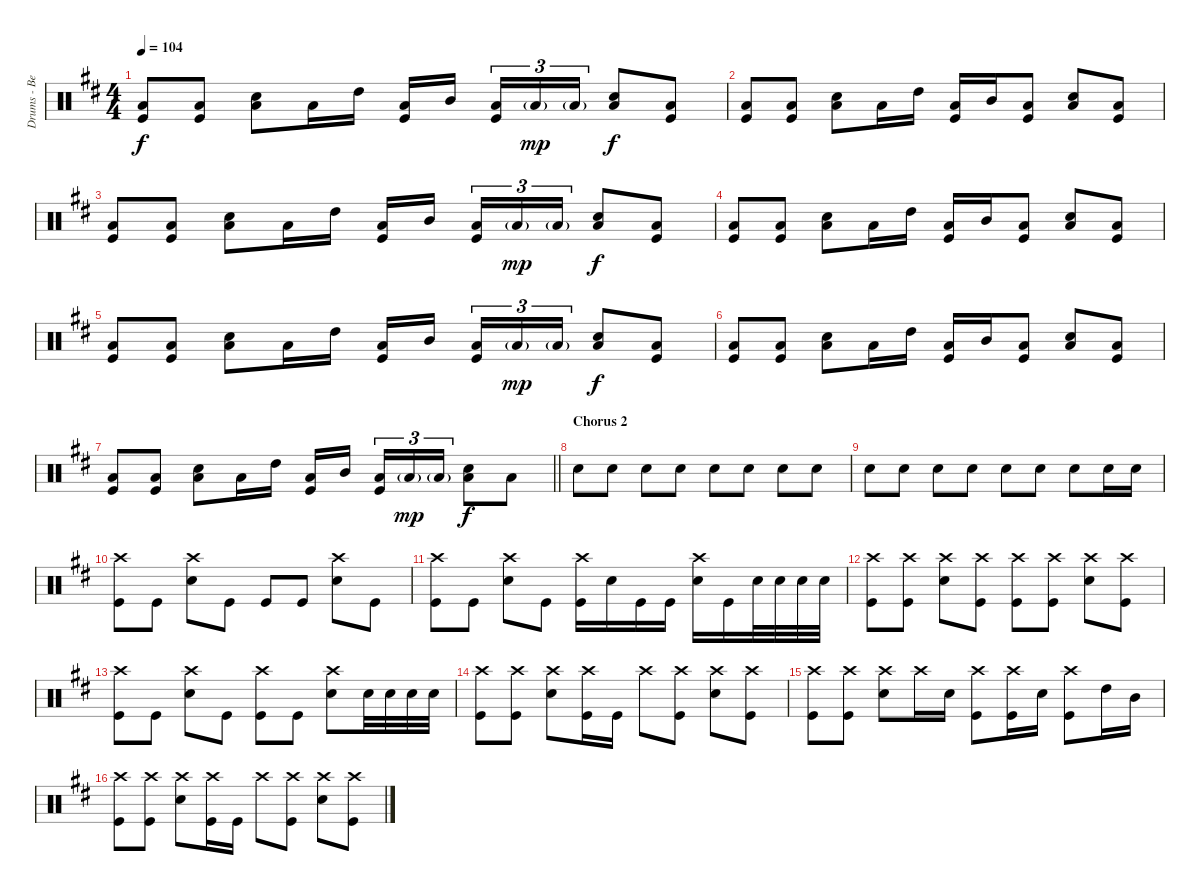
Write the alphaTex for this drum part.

\track ("Drums - Ben Johnston" "Drums - Be") {instrument percussion}
\staff {score}
\articulation defaults
\ts (4 4)
\tempo 104
\clef neutral
\ks d
("Low Tom (hit)" "Kick (hit)").8{dy f} ("Low Tom (hit)" "Kick (hit)").8 ("Low Tom (hit)" "Snare (hit) 2").8 "Low Tom (hit)".16 "High Tom (hit)".16 ("Low Tom (hit)" "Kick (hit)").16 "Mid Tom (hit)".16{beam splitsecondary} ("Low Tom (hit)" "Kick (hit)").16{tu (3 2)} "Low Tom (hit)"{g}.16{tu (3 2) dy mp} "Low Tom (hit)"{g}.16{tu (3 2)} ("Low Tom (hit)" "Snare (hit) 2").8{dy f} ("Low Tom (hit)" "Kick (hit)").8 |
("Low Tom (hit)" "Kick (hit)").8 ("Low Tom (hit)" "Kick (hit)").8 ("Low Tom (hit)" "Snare (hit) 2").8 "Low Tom (hit)".16 "High Tom (hit)".16 ("Low Tom (hit)" "Kick (hit)").16 "Mid Tom (hit)".16 ("Low Tom (hit)" "Kick (hit)").8 ("Low Tom (hit)" "Snare (hit) 2").8 ("Low Tom (hit)" "Kick (hit)").8 |
("Low Tom (hit)" "Kick (hit)").8 ("Low Tom (hit)" "Kick (hit)").8 ("Low Tom (hit)" "Snare (hit) 2").8 "Low Tom (hit)".16 "High Tom (hit)".16 ("Low Tom (hit)" "Kick (hit)").16 "Mid Tom (hit)".16{beam splitsecondary} ("Low Tom (hit)" "Kick (hit)").16{tu (3 2)} "Low Tom (hit)"{g}.16{tu (3 2) dy mp} "Low Tom (hit)"{g}.16{tu (3 2)} ("Low Tom (hit)" "Snare (hit) 2").8{dy f} ("Low Tom (hit)" "Kick (hit)").8 |
("Low Tom (hit)" "Kick (hit)").8 ("Low Tom (hit)" "Kick (hit)").8 ("Low Tom (hit)" "Snare (hit) 2").8 "Low Tom (hit)".16 "High Tom (hit)".16 ("Low Tom (hit)" "Kick (hit)").16 "Mid Tom (hit)".16 ("Low Tom (hit)" "Kick (hit)").8 ("Low Tom (hit)" "Snare (hit) 2").8 ("Low Tom (hit)" "Kick (hit)").8 |
("Low Tom (hit)" "Kick (hit)").8 ("Low Tom (hit)" "Kick (hit)").8 ("Low Tom (hit)" "Snare (hit) 2").8 "Low Tom (hit)".16 "High Tom (hit)".16 ("Low Tom (hit)" "Kick (hit)").16 "Mid Tom (hit)".16{beam splitsecondary} ("Low Tom (hit)" "Kick (hit)").16{tu (3 2)} "Low Tom (hit)"{g}.16{tu (3 2) dy mp} "Low Tom (hit)"{g}.16{tu (3 2)} ("Low Tom (hit)" "Snare (hit) 2").8{dy f} ("Low Tom (hit)" "Kick (hit)").8 |
("Low Tom (hit)" "Kick (hit)").8 ("Low Tom (hit)" "Kick (hit)").8 ("Low Tom (hit)" "Snare (hit) 2").8 "Low Tom (hit)".16 "High Tom (hit)".16 ("Low Tom (hit)" "Kick (hit)").16 "Mid Tom (hit)".16 ("Low Tom (hit)" "Kick (hit)").8 ("Low Tom (hit)" "Snare (hit) 2").8 ("Low Tom (hit)" "Kick (hit)").8 |
\barLineRight lightlight
("Low Tom (hit)" "Kick (hit)").8 ("Low Tom (hit)" "Kick (hit)").8 ("Low Tom (hit)" "Snare (hit) 2").8 "Low Tom (hit)".16 "High Tom (hit)".16 ("Low Tom (hit)" "Kick (hit)").16 "Mid Tom (hit)".16{beam splitsecondary} ("Low Tom (hit)" "Kick (hit)").16{tu (3 2)} "Low Tom (hit)"{g}.16{tu (3 2) dy mp} "Low Tom (hit)"{g}.16{tu (3 2)} ("Low Tom (hit)" "Snare (hit) 2").8{dy f} "Low Tom (hit)".8 |
\section ("" "Chorus 2")
"Snare (hit) 2".8{volume 5} "Snare (hit) 2".8{volume 6} "Snare (hit) 2".8{volume 7} "Snare (hit) 2".8{volume 8} "Snare (hit) 2".8{volume 9} "Snare (hit) 2".8 "Snare (hit) 2".8{volume 10} "Snare (hit) 2".8 |
"Snare (hit) 2".8{volume 11} "Snare (hit) 2".8 "Snare (hit) 2".8{volume 12} "Snare (hit) 2".8 "Snare (hit) 2".8{volume 12} "Snare (hit) 2".8 "Snare (hit) 2".8 "Snare (hit) 2".16 "Snare (hit) 2".16 |
("Crash high (hit)" "Kick (hit)").8 "Kick (hit)".8 ("Crash high (hit)" "Snare (hit) 2").8 "Kick (hit)".8 "Kick (hit)".8 "Kick (hit)".8 ("Crash high (hit)" "Snare (hit) 2").8 "Kick (hit)".8 |
("Crash high (hit)" "Kick (hit)").8 "Kick (hit)".8 ("Crash high (hit)" "Snare (hit) 2").8 "Kick (hit)".8 ("Crash high (hit)" "Kick (hit)").16 "Snare (hit) 2".16 "Kick (hit)".16 "Kick (hit)".16 ("Crash high (hit)" "Snare (hit) 2").16 "Kick (hit)".16 "Snare (hit) 2".32 "Snare (hit) 2".32 "Snare (hit) 2".32 "Snare (hit) 2".32 |
("Crash high (hit)" "Kick (hit)").8 ("Crash high (hit)" "Kick (hit)").8 ("Crash high (hit)" "Snare (hit) 2").8 ("Crash high (hit)" "Kick (hit)").8 ("Crash high (hit)" "Kick (hit)").8 ("Crash high (hit)" "Kick (hit)").8 ("Crash high (hit)" "Snare (hit) 2").8 ("Crash high (hit)" "Kick (hit)").8 |
("Crash high (hit)" "Kick (hit)").8 "Kick (hit)".8 ("Crash high (hit)" "Snare (hit) 2").8 "Kick (hit)".8 ("Crash high (hit)" "Kick (hit)").8 "Kick (hit)".8 ("Crash high (hit)" "Snare (hit) 2").8 "Snare (hit) 2".32 "Snare (hit) 2".32 "Snare (hit) 2".32 "Snare (hit) 2".32 |
("Crash high (hit)" "Kick (hit)").8 ("Crash high (hit)" "Kick (hit)").8 ("Crash high (hit)" "Snare (hit) 2").8 ("Crash high (hit)" "Kick (hit)").16 "Kick (hit)".16 "Crash high (hit)".8 ("Crash high (hit)" "Kick (hit)").8 ("Crash high (hit)" "Snare (hit) 2").8 ("Crash high (hit)" "Kick (hit)").8 |
("Crash high (hit)" "Kick (hit)").8 ("Crash high (hit)" "Kick (hit)").8 ("Crash high (hit)" "Snare (hit) 2").8 "Crash high (hit)".16 "Snare (hit) 2".16 ("Crash high (hit)" "Kick (hit)").8 ("Crash high (hit)" "Kick (hit)").16 "Snare (hit) 2".16 ("Crash high (hit)" "Kick (hit)").8 "High Tom (hit)".16 "Mid Tom (hit)".16 |
("Crash high (hit)" "Kick (hit)").8 ("Crash high (hit)" "Kick (hit)").8 ("Crash high (hit)" "Snare (hit) 2").8 ("Crash high (hit)" "Kick (hit)").16 "Kick (hit)".16 "Crash high (hit)".8 ("Crash high (hit)" "Kick (hit)").8 ("Crash high (hit)" "Snare (hit) 2").8 ("Crash high (hit)" "Kick (hit)").8
